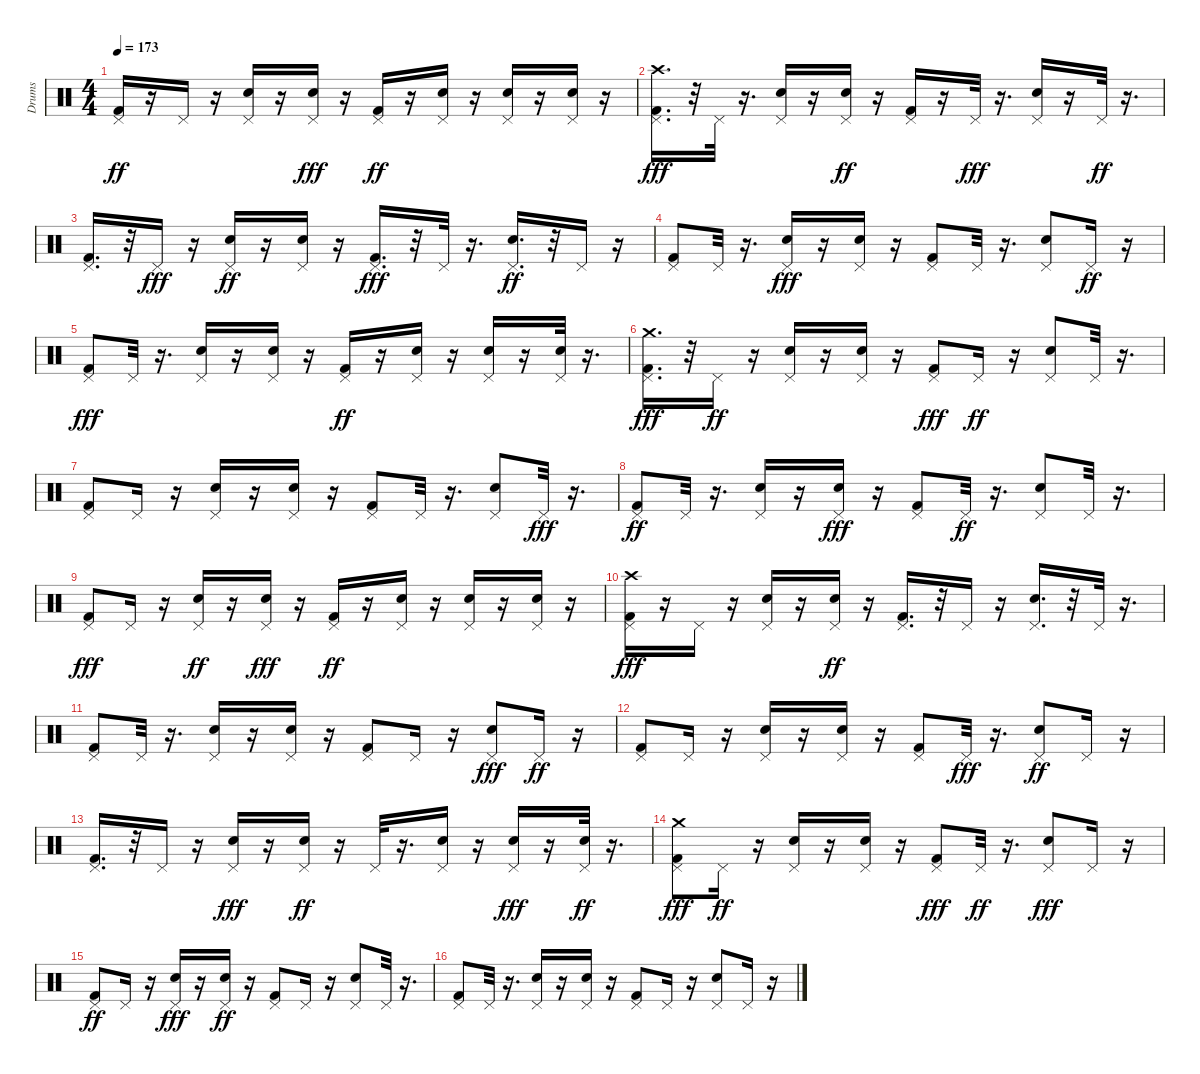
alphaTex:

\track ("Drums" "Drums") {instrument percussion}
\staff {score}
\articulation defaults
\ts (4 4)
\tempo 173
\clef neutral
\ks c
("Kick (hit) 2" "Pedal Hi-Hat (hit)").16{dy ff} r.16 "Pedal Hi-Hat (hit)".16 r.16 ("Snare (hit) 2" "Pedal Hi-Hat (hit)").16 r.16 ("Snare (hit) 2" "Pedal Hi-Hat (hit)").16{dy fff} r.16 ("Kick (hit) 2" "Pedal Hi-Hat (hit)").16{dy ff} r.16 ("Snare (hit) 2" "Pedal Hi-Hat (hit)").16 r.16 ("Snare (hit) 2" "Pedal Hi-Hat (hit)").16 r.16 ("Snare (hit) 2" "Pedal Hi-Hat (hit)").16 r.16 |
("Kick (hit) 2" "Pedal Hi-Hat (hit)" "Crash high (hit)").16{d dy fff} r.32 "Pedal Hi-Hat (hit)".32 r.16{d} ("Snare (hit) 2" "Pedal Hi-Hat (hit)").16 r.16 ("Snare (hit) 2" "Pedal Hi-Hat (hit)").16{dy ff} r.16 ("Kick (hit) 2" "Pedal Hi-Hat (hit)").16 r.16 "Pedal Hi-Hat (hit)".32{dy fff} r.16{d} ("Snare (hit) 2" "Pedal Hi-Hat (hit)").16 r.16 "Pedal Hi-Hat (hit)".32{dy ff} r.16{d} |
("Kick (hit) 2" "Pedal Hi-Hat (hit)").16{d} r.32 "Pedal Hi-Hat (hit)".16{dy fff} r.16 ("Snare (hit) 2" "Pedal Hi-Hat (hit)").16{dy ff} r.16 ("Snare (hit) 2" "Pedal Hi-Hat (hit)").16 r.16 ("Kick (hit) 2" "Pedal Hi-Hat (hit)").16{d dy fff} r.32 "Pedal Hi-Hat (hit)".32 r.16{d} ("Snare (hit) 2" "Pedal Hi-Hat (hit)").16{d dy ff} r.32 "Pedal Hi-Hat (hit)".16 r.16 |
("Kick (hit) 2" "Pedal Hi-Hat (hit)").8 "Pedal Hi-Hat (hit)".32 r.16{d} ("Snare (hit) 2" "Pedal Hi-Hat (hit)").16{dy fff} r.16 ("Snare (hit) 2" "Pedal Hi-Hat (hit)").16 r.16 ("Kick (hit) 2" "Pedal Hi-Hat (hit)").8 "Pedal Hi-Hat (hit)".32 r.16{d} ("Snare (hit) 2" "Pedal Hi-Hat (hit)").8 "Pedal Hi-Hat (hit)".16{dy ff} r.16 |
("Kick (hit) 2" "Pedal Hi-Hat (hit)").8{dy fff} "Pedal Hi-Hat (hit)".32 r.16{d} ("Snare (hit) 2" "Pedal Hi-Hat (hit)").16 r.16 ("Snare (hit) 2" "Pedal Hi-Hat (hit)").16 r.16 ("Kick (hit) 2" "Pedal Hi-Hat (hit)").16{dy ff} r.16 ("Snare (hit) 2" "Pedal Hi-Hat (hit)").16 r.16 ("Snare (hit) 2" "Pedal Hi-Hat (hit)").16 r.16 ("Snare (hit) 2" "Pedal Hi-Hat (hit)").32 r.16{d} |
("Kick (hit) 2" "Pedal Hi-Hat (hit)" "Crash medium (hit)").16{d dy fff} r.32 "Pedal Hi-Hat (hit)".16{dy ff} r.16 ("Snare (hit) 2" "Pedal Hi-Hat (hit)").16 r.16 ("Snare (hit) 2" "Pedal Hi-Hat (hit)").16 r.16 ("Kick (hit) 2" "Pedal Hi-Hat (hit)").8{dy fff} "Pedal Hi-Hat (hit)".16{dy ff} r.16 ("Snare (hit) 2" "Pedal Hi-Hat (hit)").8 "Pedal Hi-Hat (hit)".32 r.16{d} |
("Kick (hit) 2" "Pedal Hi-Hat (hit)").8 "Pedal Hi-Hat (hit)".16 r.16 ("Snare (hit) 2" "Pedal Hi-Hat (hit)").16 r.16 ("Snare (hit) 2" "Pedal Hi-Hat (hit)").16 r.16 ("Kick (hit) 2" "Pedal Hi-Hat (hit)").8 "Pedal Hi-Hat (hit)".32 r.16{d} ("Snare (hit) 2" "Pedal Hi-Hat (hit)").8 "Pedal Hi-Hat (hit)".32{dy fff} r.16{d} |
("Kick (hit) 2" "Pedal Hi-Hat (hit)").8{dy ff} "Pedal Hi-Hat (hit)".32 r.16{d} ("Snare (hit) 2" "Pedal Hi-Hat (hit)").16 r.16 ("Snare (hit) 2" "Pedal Hi-Hat (hit)").16{dy fff} r.16 ("Kick (hit) 2" "Pedal Hi-Hat (hit)").8 "Pedal Hi-Hat (hit)".32{dy ff} r.16{d} ("Snare (hit) 2" "Pedal Hi-Hat (hit)").8 "Pedal Hi-Hat (hit)".32 r.16{d} |
("Kick (hit) 2" "Pedal Hi-Hat (hit)").8{dy fff} "Pedal Hi-Hat (hit)".16 r.16 ("Snare (hit) 2" "Pedal Hi-Hat (hit)").16{dy ff} r.16 ("Snare (hit) 2" "Pedal Hi-Hat (hit)").16{dy fff} r.16 ("Kick (hit) 2" "Pedal Hi-Hat (hit)").16{dy ff} r.16 ("Snare (hit) 2" "Pedal Hi-Hat (hit)").16 r.16 ("Snare (hit) 2" "Pedal Hi-Hat (hit)").16 r.16 ("Snare (hit) 2" "Pedal Hi-Hat (hit)").16 r.16 |
("Kick (hit) 2" "Pedal Hi-Hat (hit)" "Crash high (hit)").16{dy fff} r.16 "Pedal Hi-Hat (hit)".16 r.16 ("Snare (hit) 2" "Pedal Hi-Hat (hit)").16 r.16 ("Snare (hit) 2" "Pedal Hi-Hat (hit)").16{dy ff} r.16 ("Kick (hit) 2" "Pedal Hi-Hat (hit)").16{d} r.32 "Pedal Hi-Hat (hit)".16 r.16 ("Snare (hit) 2" "Pedal Hi-Hat (hit)").16{d} r.32 "Pedal Hi-Hat (hit)".32 r.16{d} |
("Kick (hit) 2" "Pedal Hi-Hat (hit)").8 "Pedal Hi-Hat (hit)".32 r.16{d} ("Snare (hit) 2" "Pedal Hi-Hat (hit)").16 r.16 ("Snare (hit) 2" "Pedal Hi-Hat (hit)").16 r.16 ("Kick (hit) 2" "Pedal Hi-Hat (hit)").8 "Pedal Hi-Hat (hit)".16 r.16 ("Snare (hit) 2" "Pedal Hi-Hat (hit)").8{dy fff} "Pedal Hi-Hat (hit)".16{dy ff} r.16 |
("Kick (hit) 2" "Pedal Hi-Hat (hit)").8 "Pedal Hi-Hat (hit)".16 r.16 ("Snare (hit) 2" "Pedal Hi-Hat (hit)").16 r.16 ("Snare (hit) 2" "Pedal Hi-Hat (hit)").16 r.16 ("Kick (hit) 2" "Pedal Hi-Hat (hit)").8 "Pedal Hi-Hat (hit)".32{dy fff} r.16{d} ("Snare (hit) 2" "Pedal Hi-Hat (hit)").8{dy ff} "Pedal Hi-Hat (hit)".16 r.16 |
("Kick (hit) 2" "Pedal Hi-Hat (hit)").16{d} r.32 "Pedal Hi-Hat (hit)".16 r.16 ("Snare (hit) 2" "Pedal Hi-Hat (hit)").16{dy fff} r.16 ("Snare (hit) 2" "Pedal Hi-Hat (hit)").16{dy ff} r.16 "Pedal Hi-Hat (hit)".32 r.16{d} ("Snare (hit) 2" "Pedal Hi-Hat (hit)").16 r.16 ("Snare (hit) 2" "Pedal Hi-Hat (hit)").16{dy fff} r.16 ("Snare (hit) 2" "Pedal Hi-Hat (hit)").32{dy ff} r.16{d} |
("Kick (hit) 2" "Pedal Hi-Hat (hit)" "Crash medium (hit)").8{dy fff} "Pedal Hi-Hat (hit)".16{dy ff} r.16 ("Snare (hit) 2" "Pedal Hi-Hat (hit)").16 r.16 ("Snare (hit) 2" "Pedal Hi-Hat (hit)").16 r.16 ("Kick (hit) 2" "Pedal Hi-Hat (hit)").8{dy fff} "Pedal Hi-Hat (hit)".32{dy ff} r.16{d} ("Snare (hit) 2" "Pedal Hi-Hat (hit)").8{dy fff} "Pedal Hi-Hat (hit)".16 r.16 |
("Kick (hit) 2" "Pedal Hi-Hat (hit)").8{dy ff} "Pedal Hi-Hat (hit)".16 r.16 ("Snare (hit) 2" "Pedal Hi-Hat (hit)").16{dy fff} r.16 ("Snare (hit) 2" "Pedal Hi-Hat (hit)").16{dy ff} r.16 ("Kick (hit) 2" "Pedal Hi-Hat (hit)").8 "Pedal Hi-Hat (hit)".16 r.16 ("Snare (hit) 2" "Pedal Hi-Hat (hit)").8 "Pedal Hi-Hat (hit)".32 r.16{d} |
("Kick (hit) 2" "Pedal Hi-Hat (hit)").8 "Pedal Hi-Hat (hit)".32 r.16{d} ("Snare (hit) 2" "Pedal Hi-Hat (hit)").16 r.16 ("Snare (hit) 2" "Pedal Hi-Hat (hit)").16 r.16 ("Kick (hit) 2" "Pedal Hi-Hat (hit)").8 "Pedal Hi-Hat (hit)".16 r.16 ("Snare (hit) 2" "Pedal Hi-Hat (hit)").8 "Pedal Hi-Hat (hit)".16 r.16
